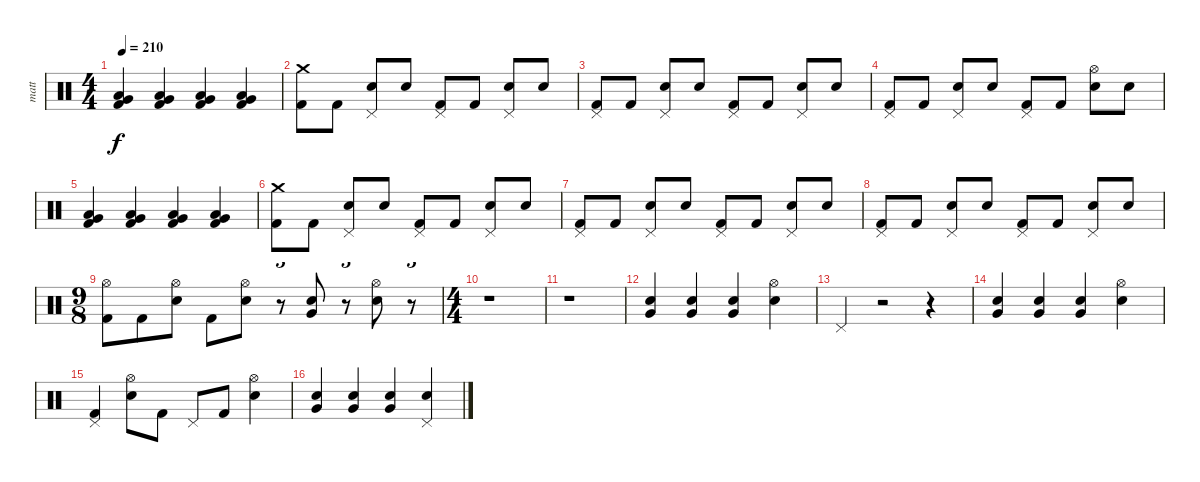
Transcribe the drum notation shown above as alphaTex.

\track ("matt" "matt") {instrument percussion}
\staff {score}
\articulation defaults
\ts (4 4)
\tempo 210
\clef neutral
\ks c
("Low Floor Tom (hit)" "Very Low Tom (hit)" "Kick (hit) 2").4{dy f} ("Low Floor Tom (hit)" "Very Low Tom (hit)" "Kick (hit) 2").4 ("Low Floor Tom (hit)" "Very Low Tom (hit)" "Kick (hit) 2").4 ("Low Floor Tom (hit)" "Very Low Tom (hit)" "Kick (hit) 2").4 |
("Crash medium (hit)" "Kick (hit) 2").8 "Kick (hit) 2".8 ("Pedal Hi-Hat (hit)" "Electric Snare (hit)").8 "Electric Snare (hit)".8 ("Pedal Hi-Hat (hit)" "Kick (hit) 2").8 "Kick (hit) 2".8 ("Pedal Hi-Hat (hit)" "Electric Snare (hit)").8 "Electric Snare (hit)".8 |
("Pedal Hi-Hat (hit)" "Kick (hit) 2").8 "Kick (hit) 2".8 ("Pedal Hi-Hat (hit)" "Electric Snare (hit)").8 "Electric Snare (hit)".8 ("Pedal Hi-Hat (hit)" "Kick (hit) 2").8 "Kick (hit) 2".8 ("Pedal Hi-Hat (hit)" "Electric Snare (hit)").8 "Electric Snare (hit)".8 |
("Pedal Hi-Hat (hit)" "Kick (hit) 2").8 "Kick (hit) 2".8 ("Pedal Hi-Hat (hit)" "Electric Snare (hit)").8 "Electric Snare (hit)".8 ("Pedal Hi-Hat (hit)" "Kick (hit) 2").8 "Kick (hit) 2".8 ("Hi-Hat (open)" "Electric Snare (hit)").8 "Electric Snare (hit)".8 |
("Low Floor Tom (hit)" "Very Low Tom (hit)" "Kick (hit) 2").4 ("Low Floor Tom (hit)" "Very Low Tom (hit)" "Kick (hit) 2").4 ("Low Floor Tom (hit)" "Very Low Tom (hit)" "Kick (hit) 2").4 ("Low Floor Tom (hit)" "Very Low Tom (hit)" "Kick (hit) 2").4 |
("Crash medium (hit)" "Kick (hit) 2").8 "Kick (hit) 2".8 ("Pedal Hi-Hat (hit)" "Electric Snare (hit)").8 "Electric Snare (hit)".8 ("Pedal Hi-Hat (hit)" "Kick (hit) 2").8 "Kick (hit) 2".8 ("Pedal Hi-Hat (hit)" "Electric Snare (hit)").8 "Electric Snare (hit)".8 |
("Pedal Hi-Hat (hit)" "Kick (hit) 2").8 "Kick (hit) 2".8 ("Pedal Hi-Hat (hit)" "Electric Snare (hit)").8 "Electric Snare (hit)".8 ("Pedal Hi-Hat (hit)" "Kick (hit) 2").8 "Kick (hit) 2".8 ("Pedal Hi-Hat (hit)" "Electric Snare (hit)").8 "Electric Snare (hit)".8 |
("Pedal Hi-Hat (hit)" "Kick (hit) 2").8 "Kick (hit) 2".8 ("Pedal Hi-Hat (hit)" "Electric Snare (hit)").8 "Electric Snare (hit)".8 ("Pedal Hi-Hat (hit)" "Kick (hit) 2").8 "Kick (hit) 2".8 ("Pedal Hi-Hat (hit)" "Electric Snare (hit)").8 "Electric Snare (hit)".8 |
\ts (9 8)
("Hi-Hat (open)" "Kick (hit) 2").8 "Kick (hit) 2".8 ("Hi-Hat (open)" "Electric Snare (hit)").8 "Kick (hit) 2".8 ("Hi-Hat (open)" "Electric Snare (hit)").8 r.8{tu (3 2)} ("Very Low Tom (hit)" "Electric Snare (hit)").8 r.8{tu (3 2)} ("Hi-Hat (open)" "Electric Snare (hit)").8 r.8{tu (3 2)} |
\ts (4 4)
r.1 |
r.1 |
("Very Low Tom (hit)" "Electric Snare (hit)").4 ("Very Low Tom (hit)" "Electric Snare (hit)").4 ("Very Low Tom (hit)" "Electric Snare (hit)").4 ("Hi-Hat (open)" "Electric Snare (hit)").4 |
"Pedal Hi-Hat (hit)".4 r.2 r.4 |
("Very Low Tom (hit)" "Electric Snare (hit)").4 ("Very Low Tom (hit)" "Electric Snare (hit)").4 ("Very Low Tom (hit)" "Electric Snare (hit)").4 ("Hi-Hat (open)" "Electric Snare (hit)").4 |
("Pedal Hi-Hat (hit)" "Kick (hit) 2").4 ("Hi-Hat (open)" "Electric Snare (hit)").8 "Kick (hit) 2".8 "Pedal Hi-Hat (hit)".8 "Kick (hit) 2".8 ("Hi-Hat (open)" "Electric Snare (hit)").4 |
("Very Low Tom (hit)" "Electric Snare (hit)").4 ("Very Low Tom (hit)" "Electric Snare (hit)").4 ("Very Low Tom (hit)" "Electric Snare (hit)").4 ("Pedal Hi-Hat (hit)" "Electric Snare (hit)").4
